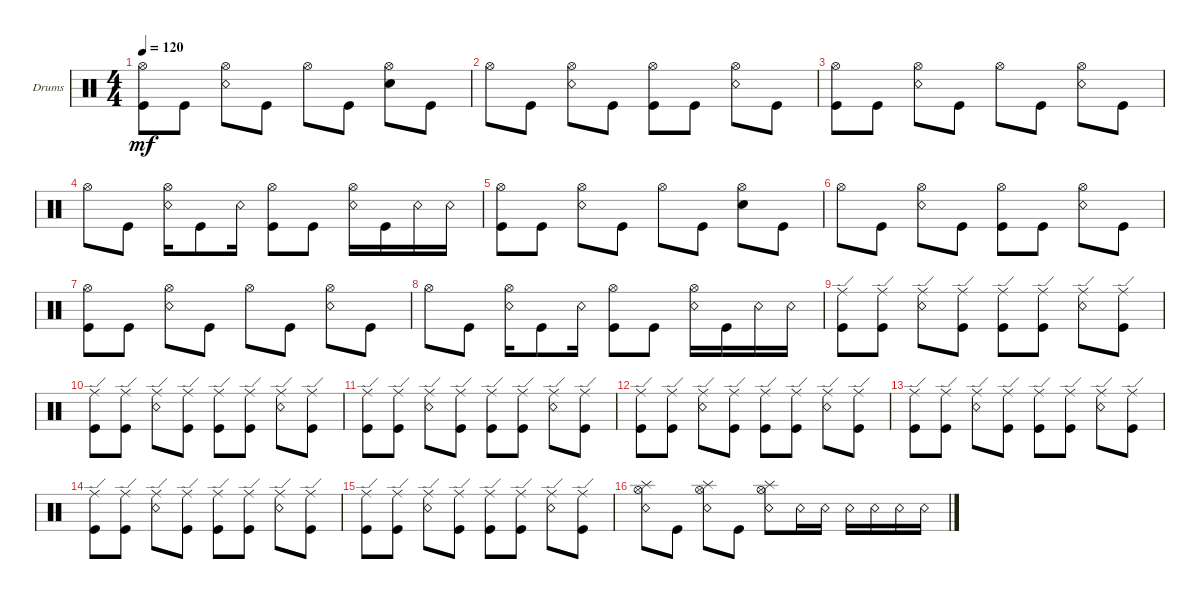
\defaultSystemsLayout 4
\bracketExtendMode groupsimilarinstruments
\firstSystemTrackNameOrientation horizontal
\otherSystemsTrackNameOrientation horizontal
\track ("Roman Vorontcov" "Drums") {instrument percussion}
\staff {score}
\articulation defaults
\ts (4 4)
\tempo 120
\clef neutral
\ks c
("Kick (hit)" "Hi-Hat (open)").8{dy mf} "Kick (hit)".8 ("Snare (rim shot)" "Hi-Hat (open)").8 "Kick (hit)".8 "Hi-Hat (open)".8 "Kick (hit)".8 ("Snare (hit) 2" "Hi-Hat (open)").8 "Kick (hit)".8 |
"Hi-Hat (open)".8 "Kick (hit)".8 ("Snare (rim shot)" "Hi-Hat (open)").8 "Kick (hit)".8 ("Kick (hit)" "Hi-Hat (open)").8 "Kick (hit)".8 ("Snare (rim shot)" "Hi-Hat (open)").8 "Kick (hit)".8 |
("Kick (hit)" "Hi-Hat (open)").8 "Kick (hit)".8 ("Snare (rim shot)" "Hi-Hat (open)").8 "Kick (hit)".8 "Hi-Hat (open)".8 "Kick (hit)".8 ("Snare (rim shot)" "Hi-Hat (open)").8 "Kick (hit)".8 |
"Hi-Hat (open)".8 "Kick (hit)".8 ("Snare (rim shot)" "Hi-Hat (open)").16 "Kick (hit)".8 "Snare (rim shot)".16 ("Kick (hit)" "Hi-Hat (open)").8 "Kick (hit)".8 ("Snare (rim shot)" "Hi-Hat (open)").16 "Kick (hit)".16 "Snare (rim shot)".16 "Snare (rim shot)".16 |
("Kick (hit)" "Hi-Hat (open)").8 "Kick (hit)".8 ("Snare (rim shot)" "Hi-Hat (open)").8 "Kick (hit)".8 "Hi-Hat (open)".8 "Kick (hit)".8 ("Snare (hit) 2" "Hi-Hat (open)").8 "Kick (hit)".8 |
"Hi-Hat (open)".8 "Kick (hit)".8 ("Snare (rim shot)" "Hi-Hat (open)").8 "Kick (hit)".8 ("Kick (hit)" "Hi-Hat (open)").8 "Kick (hit)".8 ("Snare (rim shot)" "Hi-Hat (open)").8 "Kick (hit)".8 |
("Kick (hit)" "Hi-Hat (open)").8 "Kick (hit)".8 ("Snare (rim shot)" "Hi-Hat (open)").8 "Kick (hit)".8 "Hi-Hat (open)".8 "Kick (hit)".8 ("Snare (rim shot)" "Hi-Hat (open)").8 "Kick (hit)".8 |
"Hi-Hat (open)".8 "Kick (hit)".8 ("Snare (rim shot)" "Hi-Hat (open)").16 "Kick (hit)".8 "Snare (rim shot)".16 ("Kick (hit)" "Hi-Hat (open)").8 "Kick (hit)".8 ("Snare (rim shot)" "Hi-Hat (open)").16 "Kick (hit)".16 "Snare (rim shot)".16 "Snare (rim shot)".16 |
("Kick (hit)" "Ride (edge)").8 ("Kick (hit)" "Ride (edge)").8 ("Snare (rim shot)" "Ride (edge)").8 ("Kick (hit)" "Ride (edge)").8 ("Kick (hit)" "Ride (edge)").8 ("Kick (hit)" "Ride (edge)").8 ("Snare (rim shot)" "Ride (edge)").8 ("Kick (hit)" "Ride (edge)").8 |
("Kick (hit)" "Ride (edge)").8 ("Kick (hit)" "Ride (edge)").8 ("Snare (rim shot)" "Ride (edge)").8 ("Kick (hit)" "Ride (edge)").8 ("Kick (hit)" "Ride (edge)").8 ("Kick (hit)" "Ride (edge)").8 ("Snare (rim shot)" "Ride (edge)").8 ("Kick (hit)" "Ride (edge)").8 |
("Kick (hit)" "Ride (edge)").8 ("Kick (hit)" "Ride (edge)").8 ("Snare (rim shot)" "Ride (edge)").8 ("Kick (hit)" "Ride (edge)").8 ("Kick (hit)" "Ride (edge)").8 ("Kick (hit)" "Ride (edge)").8 ("Snare (rim shot)" "Ride (edge)").8 ("Kick (hit)" "Ride (edge)").8 |
("Kick (hit)" "Ride (edge)").8 ("Kick (hit)" "Ride (edge)").8 ("Snare (rim shot)" "Ride (edge)").8 ("Kick (hit)" "Ride (edge)").8 ("Kick (hit)" "Ride (edge)").8 ("Kick (hit)" "Ride (edge)").8 ("Snare (rim shot)" "Ride (edge)").8 ("Kick (hit)" "Ride (edge)").8 |
("Kick (hit)" "Ride (edge)").8 ("Kick (hit)" "Ride (edge)").8 ("Snare (rim shot)" "Ride (edge)").8 ("Kick (hit)" "Ride (edge)").8 ("Kick (hit)" "Ride (edge)").8 ("Kick (hit)" "Ride (edge)").8 ("Snare (rim shot)" "Ride (edge)").8 ("Kick (hit)" "Ride (edge)").8 |
("Kick (hit)" "Ride (edge)").8 ("Kick (hit)" "Ride (edge)").8 ("Snare (rim shot)" "Ride (edge)").8 ("Kick (hit)" "Ride (edge)").8 ("Kick (hit)" "Ride (edge)").8 ("Kick (hit)" "Ride (edge)").8 ("Snare (rim shot)" "Ride (edge)").8 ("Kick (hit)" "Ride (edge)").8 |
("Kick (hit)" "Ride (edge)").8 ("Kick (hit)" "Ride (edge)").8 ("Snare (rim shot)" "Ride (edge)").8 ("Kick (hit)" "Ride (edge)").8 ("Kick (hit)" "Ride (edge)").8 ("Kick (hit)" "Ride (edge)").8 ("Snare (rim shot)" "Ride (edge)").8 ("Kick (hit)" "Ride (edge)").8 |
("Snare (rim shot)" "Splash (hit)" "Hi-Hat (open)").8 "Kick (hit)".8 ("Snare (rim shot)" "Splash (hit)" "Hi-Hat (open)").8 "Kick (hit)".8 ("Snare (rim shot)" "Splash (hit)" "Hi-Hat (open)").8 "Snare (rim shot)".16 "Snare (rim shot)".16 "Snare (rim shot)".16 "Snare (rim shot)".16 "Snare (rim shot)".16 "Snare (rim shot)".16
